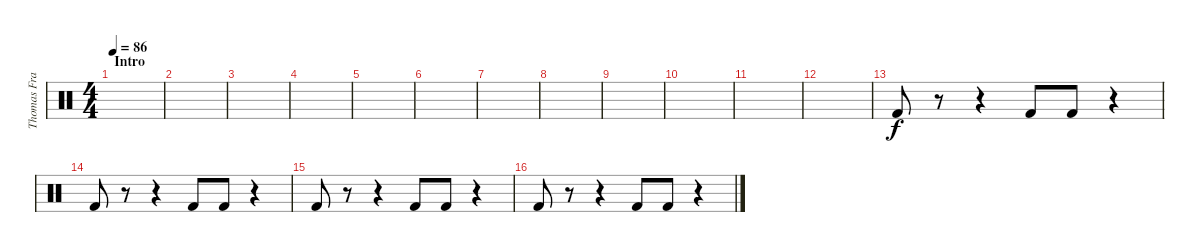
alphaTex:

\track ("Thomas Franke" "Thomas Fra") {instrument percussion}
\staff {score}
\articulation defaults
\ts (4 4)
\section ("" "Intro")
\tempo 86
\clef neutral
\ks c
|
|
|
|
|
|
|
|
|
|
|
|
"Kick (hit) 2".8 r.8 r.4 "Kick (hit) 2".8 "Kick (hit) 2".8 r.4 |
"Kick (hit) 2".8 r.8 r.4 "Kick (hit) 2".8 "Kick (hit) 2".8 r.4 |
"Kick (hit) 2".8 r.8 r.4 "Kick (hit) 2".8 "Kick (hit) 2".8 r.4 |
"Kick (hit) 2".8 r.8 r.4 "Kick (hit) 2".8 "Kick (hit) 2".8 r.4
